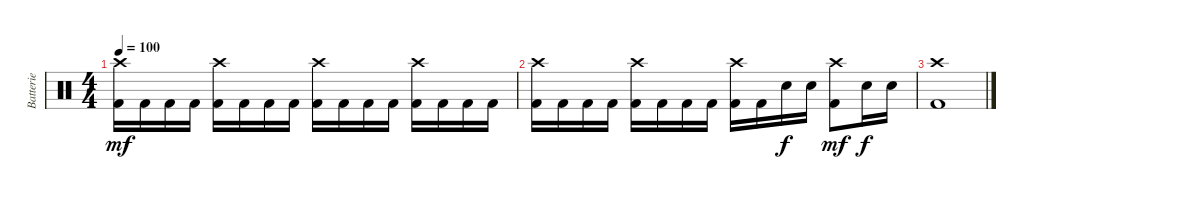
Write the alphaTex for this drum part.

\track ("Batterie" "Batterie") {instrument percussion}
\staff {score}
\articulation defaults
\ts (4 4)
\tempo 100
\clef neutral
\ks c
("Crash high (hit)" "Kick (hit) 2").16{dy mf} "Kick (hit) 2".16 "Kick (hit) 2".16 "Kick (hit) 2".16 ("Crash high (hit)" "Kick (hit) 2").16 "Kick (hit) 2".16 "Kick (hit) 2".16 "Kick (hit) 2".16 ("Crash high (hit)" "Kick (hit) 2").16 "Kick (hit) 2".16 "Kick (hit) 2".16 "Kick (hit) 2".16 ("Crash high (hit)" "Kick (hit) 2").16 "Kick (hit) 2".16 "Kick (hit) 2".16 "Kick (hit) 2".16 |
("Crash high (hit)" "Kick (hit) 2").16 "Kick (hit) 2".16 "Kick (hit) 2".16 "Kick (hit) 2".16 ("Crash high (hit)" "Kick (hit) 2").16 "Kick (hit) 2".16 "Kick (hit) 2".16 "Kick (hit) 2".16 ("Crash high (hit)" "Kick (hit) 2").16 "Kick (hit) 2".16 "Electric Snare (hit)".16{dy f} "Electric Snare (hit)".16 ("Crash high (hit)" "Kick (hit) 2").8{dy mf} "Electric Snare (hit)".16{dy f} "Electric Snare (hit)".16 |
("Crash high (hit)" "Kick (hit) 2").1
